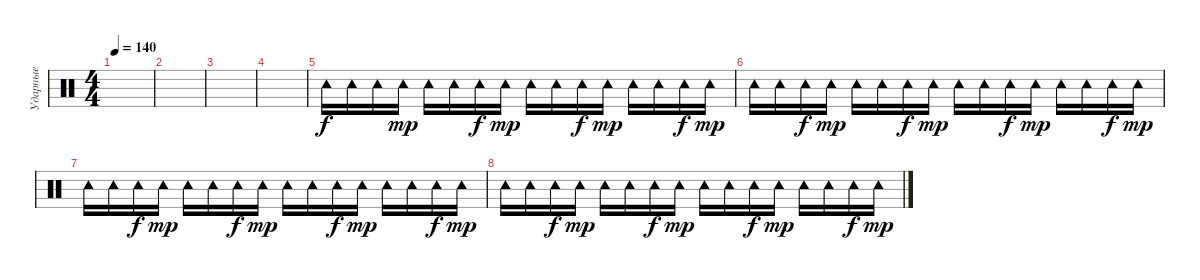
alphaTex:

\track ("Ударные" "Ударные") {instrument percussion}
\staff {score}
\articulation defaults
\ts (4 4)
\tempo 140
\clef neutral
\ks c
|
|
|
|
"Tambourine (hit)".16 "Tambourine (hit)".16 "Tambourine (hit)".16{dy f} "Tambourine (hit)".16{dy mp} "Tambourine (hit)".16 "Tambourine (hit)".16 "Tambourine (hit)".16{dy f} "Tambourine (hit)".16{dy mp} "Tambourine (hit)".16 "Tambourine (hit)".16 "Tambourine (hit)".16{dy f} "Tambourine (hit)".16{dy mp} "Tambourine (hit)".16 "Tambourine (hit)".16 "Tambourine (hit)".16{dy f} "Tambourine (hit)".16{dy mp} |
"Tambourine (hit)".16 "Tambourine (hit)".16 "Tambourine (hit)".16{dy f} "Tambourine (hit)".16{dy mp} "Tambourine (hit)".16 "Tambourine (hit)".16 "Tambourine (hit)".16{dy f} "Tambourine (hit)".16{dy mp} "Tambourine (hit)".16 "Tambourine (hit)".16 "Tambourine (hit)".16{dy f} "Tambourine (hit)".16{dy mp} "Tambourine (hit)".16 "Tambourine (hit)".16 "Tambourine (hit)".16{dy f} "Tambourine (hit)".16{dy mp} |
"Tambourine (hit)".16 "Tambourine (hit)".16 "Tambourine (hit)".16{dy f} "Tambourine (hit)".16{dy mp} "Tambourine (hit)".16 "Tambourine (hit)".16 "Tambourine (hit)".16{dy f} "Tambourine (hit)".16{dy mp} "Tambourine (hit)".16 "Tambourine (hit)".16 "Tambourine (hit)".16{dy f} "Tambourine (hit)".16{dy mp} "Tambourine (hit)".16 "Tambourine (hit)".16 "Tambourine (hit)".16{dy f} "Tambourine (hit)".16{dy mp} |
"Tambourine (hit)".16 "Tambourine (hit)".16 "Tambourine (hit)".16{dy f} "Tambourine (hit)".16{dy mp} "Tambourine (hit)".16 "Tambourine (hit)".16 "Tambourine (hit)".16{dy f} "Tambourine (hit)".16{dy mp} "Tambourine (hit)".16 "Tambourine (hit)".16 "Tambourine (hit)".16{dy f} "Tambourine (hit)".16{dy mp} "Tambourine (hit)".16 "Tambourine (hit)".16 "Tambourine (hit)".16{dy f} "Tambourine (hit)".16{dy mp}
